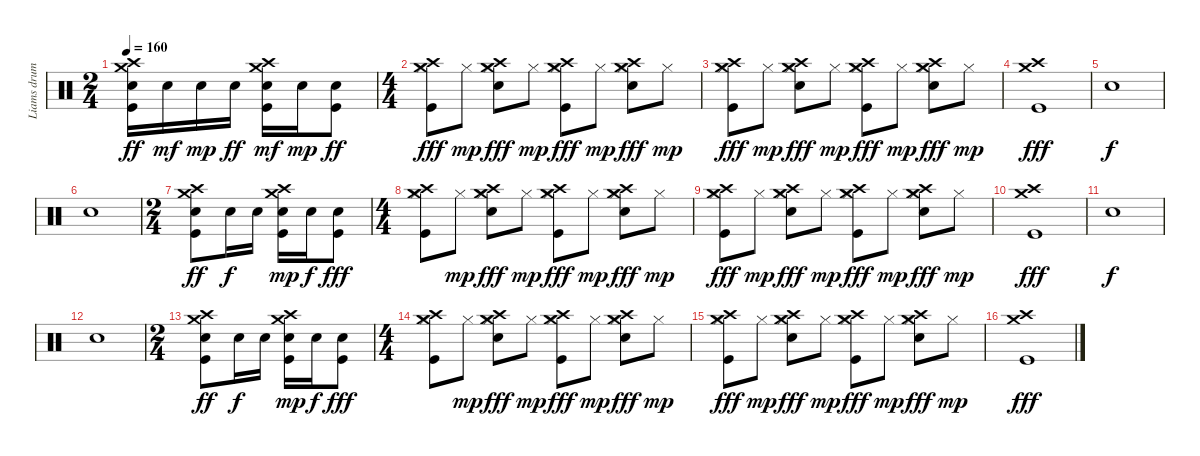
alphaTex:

\track ("Liams drums" "Liams drum") {instrument percussion}
\staff {score}
\articulation defaults
\ts (2 4)
\tempo 160
\clef neutral
\ks c
("Crash high (hit)" "Crash medium (hit)" "Electric Snare (hit)" "Kick (hit)").16{dy ff} "Electric Snare (hit)".16{dy mf} "Electric Snare (hit)".16{dy mp} "Electric Snare (hit)".16{dy ff} ("Crash high (hit)" "Crash medium (hit)" "Electric Snare (hit)" "Kick (hit)").16{dy mf} "Electric Snare (hit)".16{dy mp} ("Electric Snare (hit)" "Kick (hit)").8{dy ff} |
\ts (4 4)
("Crash high (hit)" "Crash medium (hit)" "Hi-Hat (closed)" "Kick (hit)").8{dy fff} "Hi-Hat (closed)".8{dy mp} ("Crash high (hit)" "Crash medium (hit)" "Hi-Hat (closed)" "Electric Snare (hit)").8{dy fff} "Hi-Hat (closed)".8{dy mp} ("Crash high (hit)" "Crash medium (hit)" "Hi-Hat (closed)" "Kick (hit)").8{dy fff} "Hi-Hat (closed)".8{dy mp} ("Crash high (hit)" "Crash medium (hit)" "Hi-Hat (closed)" "Electric Snare (hit)").8{dy fff} "Hi-Hat (closed)".8{dy mp} |
("Crash high (hit)" "Crash medium (hit)" "Hi-Hat (closed)" "Kick (hit)").8{dy fff} "Hi-Hat (closed)".8{dy mp} ("Crash high (hit)" "Crash medium (hit)" "Hi-Hat (closed)" "Electric Snare (hit)").8{dy fff} "Hi-Hat (closed)".8{dy mp} ("Crash high (hit)" "Crash medium (hit)" "Hi-Hat (closed)" "Kick (hit)").8{dy fff} "Hi-Hat (closed)".8{dy mp} ("Crash high (hit)" "Crash medium (hit)" "Hi-Hat (closed)" "Electric Snare (hit)").8{dy fff} "Hi-Hat (closed)".8{dy mp} |
("Crash high (hit)" "Crash medium (hit)" "Kick (hit)").1{dy fff} |
"Snare (hit)"{x}.1{dy f} |
"Snare (hit)"{x}.1 |
\ts (2 4)
("Crash high (hit)" "Crash medium (hit)" "Electric Snare (hit)" "Kick (hit)").8{dy ff} "Electric Snare (hit)".16{dy f} "Electric Snare (hit)".16 ("Crash high (hit)" "Crash medium (hit)" "Electric Snare (hit)" "Kick (hit)").16{dy mp} "Electric Snare (hit)".16{dy f} ("Electric Snare (hit)" "Kick (hit)").8{dy fff} |
\ts (4 4)
("Crash high (hit)" "Crash medium (hit)" "Hi-Hat (closed)" "Kick (hit)").8 "Hi-Hat (closed)".8{dy mp} ("Crash high (hit)" "Crash medium (hit)" "Hi-Hat (closed)" "Electric Snare (hit)").8{dy fff} "Hi-Hat (closed)".8{dy mp} ("Crash high (hit)" "Crash medium (hit)" "Hi-Hat (closed)" "Kick (hit)").8{dy fff} "Hi-Hat (closed)".8{dy mp} ("Crash high (hit)" "Crash medium (hit)" "Hi-Hat (closed)" "Electric Snare (hit)").8{dy fff} "Hi-Hat (closed)".8{dy mp} |
("Crash high (hit)" "Crash medium (hit)" "Hi-Hat (closed)" "Kick (hit)").8{dy fff} "Hi-Hat (closed)".8{dy mp} ("Crash high (hit)" "Crash medium (hit)" "Hi-Hat (closed)" "Electric Snare (hit)").8{dy fff} "Hi-Hat (closed)".8{dy mp} ("Crash high (hit)" "Crash medium (hit)" "Hi-Hat (closed)" "Kick (hit)").8{dy fff} "Hi-Hat (closed)".8{dy mp} ("Crash high (hit)" "Crash medium (hit)" "Hi-Hat (closed)" "Electric Snare (hit)").8{dy fff} "Hi-Hat (closed)".8{dy mp} |
("Crash high (hit)" "Crash medium (hit)" "Kick (hit)").1{dy fff} |
"Snare (hit)"{x}.1{dy f} |
"Snare (hit)"{x}.1 |
\ts (2 4)
("Crash high (hit)" "Crash medium (hit)" "Electric Snare (hit)" "Kick (hit)").8{dy ff} "Electric Snare (hit)".16{dy f} "Electric Snare (hit)".16 ("Crash high (hit)" "Crash medium (hit)" "Electric Snare (hit)" "Kick (hit)").16{dy mp} "Electric Snare (hit)".16{dy f} ("Electric Snare (hit)" "Kick (hit)").8{dy fff} |
\ts (4 4)
("Crash high (hit)" "Crash medium (hit)" "Hi-Hat (closed)" "Kick (hit)").8 "Hi-Hat (closed)".8{dy mp} ("Crash high (hit)" "Crash medium (hit)" "Hi-Hat (closed)" "Electric Snare (hit)").8{dy fff} "Hi-Hat (closed)".8{dy mp} ("Crash high (hit)" "Crash medium (hit)" "Hi-Hat (closed)" "Kick (hit)").8{dy fff} "Hi-Hat (closed)".8{dy mp} ("Crash high (hit)" "Crash medium (hit)" "Hi-Hat (closed)" "Electric Snare (hit)").8{dy fff} "Hi-Hat (closed)".8{dy mp} |
("Crash high (hit)" "Crash medium (hit)" "Hi-Hat (closed)" "Kick (hit)").8{dy fff} "Hi-Hat (closed)".8{dy mp} ("Crash high (hit)" "Crash medium (hit)" "Hi-Hat (closed)" "Electric Snare (hit)").8{dy fff} "Hi-Hat (closed)".8{dy mp} ("Crash high (hit)" "Crash medium (hit)" "Hi-Hat (closed)" "Kick (hit)").8{dy fff} "Hi-Hat (closed)".8{dy mp} ("Crash high (hit)" "Crash medium (hit)" "Hi-Hat (closed)" "Electric Snare (hit)").8{dy fff} "Hi-Hat (closed)".8{dy mp} |
("Crash high (hit)" "Crash medium (hit)" "Kick (hit)").1{dy fff}
